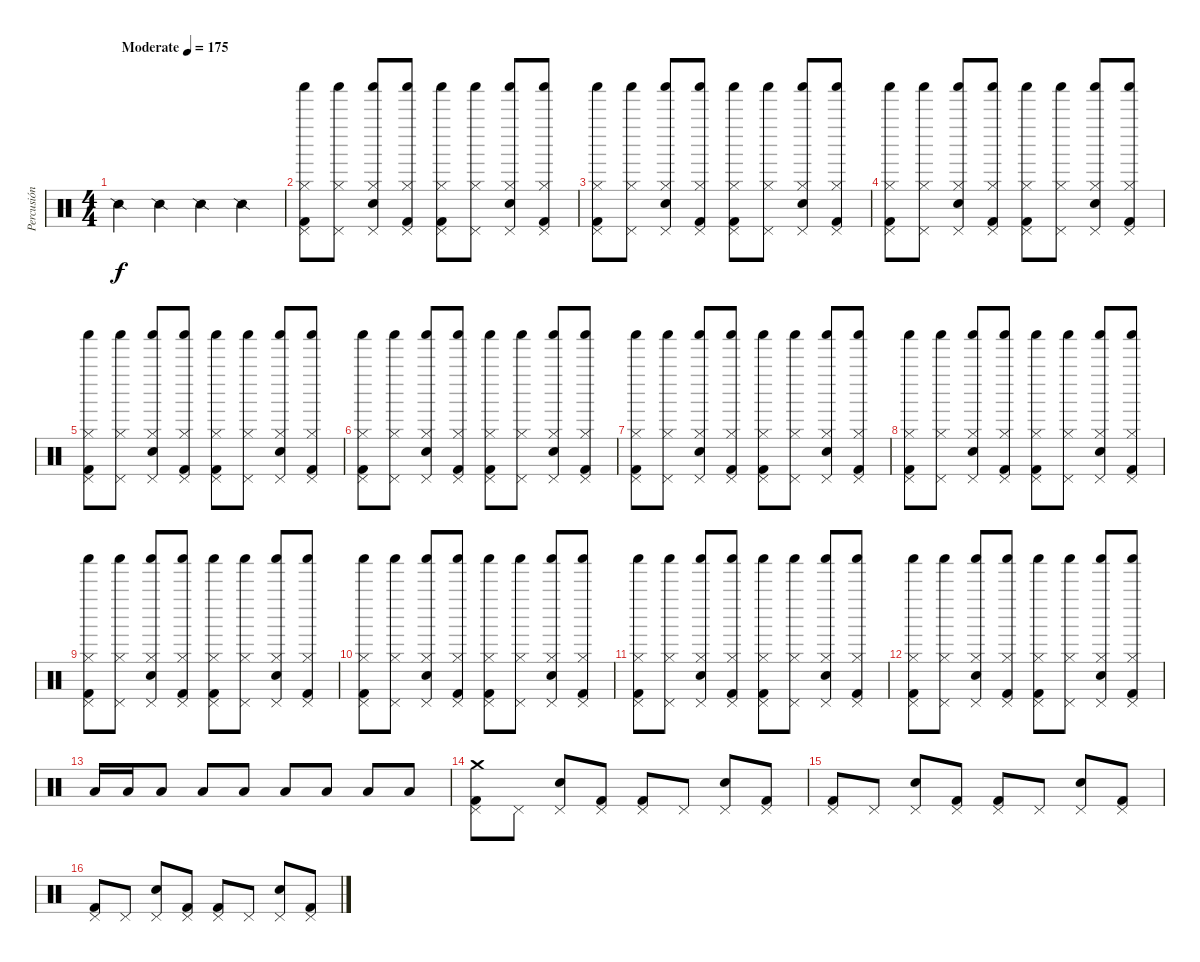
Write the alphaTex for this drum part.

\track ("Percusión" "Percusión") {instrument percussion}
\staff {score}
\articulation defaults
\ts (4 4)
\tempo (175 "Moderate")
\clef neutral
\ks c "Snare (side stick) 2".4{dy f} "Snare (side stick) 2".4 "Snare (side stick) 2".4 "Snare (side stick) 2".4
|
("Pedal Hi-Hat (hit)" "Shaker (hit)" "Hi-Hat (closed)" "Kick (hit) 2").8 ("Pedal Hi-Hat (hit)" "Shaker (hit)" "Hi-Hat (closed)").8 ("Pedal Hi-Hat (hit)" "Shaker (hit)" "Hi-Hat (closed)" "Electric Snare (hit)").8 ("Pedal Hi-Hat (hit)" "Shaker (hit)" "Hi-Hat (closed)" "Kick (hit) 2").8 ("Pedal Hi-Hat (hit)" "Shaker (hit)" "Hi-Hat (closed)" "Kick (hit) 2").8 ("Pedal Hi-Hat (hit)" "Shaker (hit)" "Hi-Hat (closed)").8 ("Pedal Hi-Hat (hit)" "Shaker (hit)" "Hi-Hat (closed)" "Electric Snare (hit)").8 ("Pedal Hi-Hat (hit)" "Shaker (hit)" "Hi-Hat (closed)" "Kick (hit) 2").8 |
("Pedal Hi-Hat (hit)" "Shaker (hit)" "Hi-Hat (closed)" "Kick (hit) 2").8 ("Pedal Hi-Hat (hit)" "Shaker (hit)" "Hi-Hat (closed)").8 ("Pedal Hi-Hat (hit)" "Shaker (hit)" "Hi-Hat (closed)" "Electric Snare (hit)").8 ("Pedal Hi-Hat (hit)" "Shaker (hit)" "Hi-Hat (closed)" "Kick (hit) 2").8 ("Pedal Hi-Hat (hit)" "Shaker (hit)" "Hi-Hat (closed)" "Kick (hit) 2").8 ("Pedal Hi-Hat (hit)" "Shaker (hit)" "Hi-Hat (closed)").8 ("Pedal Hi-Hat (hit)" "Shaker (hit)" "Hi-Hat (closed)" "Electric Snare (hit)").8 ("Pedal Hi-Hat (hit)" "Shaker (hit)" "Hi-Hat (closed)" "Kick (hit) 2").8 |
("Pedal Hi-Hat (hit)" "Shaker (hit)" "Hi-Hat (closed)" "Kick (hit) 2").8 ("Pedal Hi-Hat (hit)" "Shaker (hit)" "Hi-Hat (closed)").8 ("Pedal Hi-Hat (hit)" "Shaker (hit)" "Hi-Hat (closed)" "Electric Snare (hit)").8 ("Pedal Hi-Hat (hit)" "Shaker (hit)" "Hi-Hat (closed)" "Kick (hit) 2").8 ("Pedal Hi-Hat (hit)" "Shaker (hit)" "Hi-Hat (closed)" "Kick (hit) 2").8 ("Pedal Hi-Hat (hit)" "Shaker (hit)" "Hi-Hat (closed)").8 ("Pedal Hi-Hat (hit)" "Shaker (hit)" "Hi-Hat (closed)" "Electric Snare (hit)").8 ("Pedal Hi-Hat (hit)" "Shaker (hit)" "Hi-Hat (closed)" "Kick (hit) 2").8 |
("Pedal Hi-Hat (hit)" "Shaker (hit)" "Hi-Hat (closed)" "Kick (hit) 2").8 ("Pedal Hi-Hat (hit)" "Shaker (hit)" "Hi-Hat (closed)").8 ("Pedal Hi-Hat (hit)" "Shaker (hit)" "Hi-Hat (closed)" "Electric Snare (hit)").8 ("Pedal Hi-Hat (hit)" "Shaker (hit)" "Hi-Hat (closed)" "Kick (hit) 2").8 ("Pedal Hi-Hat (hit)" "Shaker (hit)" "Hi-Hat (closed)" "Kick (hit) 2").8 ("Pedal Hi-Hat (hit)" "Shaker (hit)" "Hi-Hat (closed)").8 ("Pedal Hi-Hat (hit)" "Shaker (hit)" "Hi-Hat (closed)" "Electric Snare (hit)").8 ("Pedal Hi-Hat (hit)" "Shaker (hit)" "Hi-Hat (closed)" "Kick (hit) 2").8 |
("Pedal Hi-Hat (hit)" "Shaker (hit)" "Hi-Hat (closed)" "Kick (hit) 2").8 ("Pedal Hi-Hat (hit)" "Shaker (hit)" "Hi-Hat (closed)").8 ("Pedal Hi-Hat (hit)" "Shaker (hit)" "Hi-Hat (closed)" "Electric Snare (hit)").8 ("Pedal Hi-Hat (hit)" "Shaker (hit)" "Hi-Hat (closed)" "Kick (hit) 2").8 ("Pedal Hi-Hat (hit)" "Shaker (hit)" "Hi-Hat (closed)" "Kick (hit) 2").8 ("Pedal Hi-Hat (hit)" "Shaker (hit)" "Hi-Hat (closed)").8 ("Pedal Hi-Hat (hit)" "Shaker (hit)" "Hi-Hat (closed)" "Electric Snare (hit)").8 ("Pedal Hi-Hat (hit)" "Shaker (hit)" "Hi-Hat (closed)" "Kick (hit) 2").8 |
("Pedal Hi-Hat (hit)" "Shaker (hit)" "Hi-Hat (closed)" "Kick (hit) 2").8 ("Pedal Hi-Hat (hit)" "Shaker (hit)" "Hi-Hat (closed)").8 ("Pedal Hi-Hat (hit)" "Shaker (hit)" "Hi-Hat (closed)" "Electric Snare (hit)").8 ("Pedal Hi-Hat (hit)" "Shaker (hit)" "Hi-Hat (closed)" "Kick (hit) 2").8 ("Pedal Hi-Hat (hit)" "Shaker (hit)" "Hi-Hat (closed)" "Kick (hit) 2").8 ("Pedal Hi-Hat (hit)" "Shaker (hit)" "Hi-Hat (closed)").8 ("Pedal Hi-Hat (hit)" "Shaker (hit)" "Hi-Hat (closed)" "Electric Snare (hit)").8 ("Pedal Hi-Hat (hit)" "Shaker (hit)" "Hi-Hat (closed)" "Kick (hit) 2").8 |
("Pedal Hi-Hat (hit)" "Shaker (hit)" "Hi-Hat (closed)" "Kick (hit) 2").8 ("Pedal Hi-Hat (hit)" "Shaker (hit)" "Hi-Hat (closed)").8 ("Pedal Hi-Hat (hit)" "Shaker (hit)" "Hi-Hat (closed)" "Electric Snare (hit)").8 ("Pedal Hi-Hat (hit)" "Shaker (hit)" "Hi-Hat (closed)" "Kick (hit) 2").8 ("Pedal Hi-Hat (hit)" "Shaker (hit)" "Hi-Hat (closed)" "Kick (hit) 2").8 ("Pedal Hi-Hat (hit)" "Shaker (hit)" "Hi-Hat (closed)").8 ("Pedal Hi-Hat (hit)" "Shaker (hit)" "Hi-Hat (closed)" "Electric Snare (hit)").8 ("Pedal Hi-Hat (hit)" "Shaker (hit)" "Hi-Hat (closed)" "Kick (hit) 2").8 |
("Pedal Hi-Hat (hit)" "Shaker (hit)" "Hi-Hat (closed)" "Kick (hit) 2").8 ("Pedal Hi-Hat (hit)" "Shaker (hit)" "Hi-Hat (closed)").8 ("Pedal Hi-Hat (hit)" "Shaker (hit)" "Hi-Hat (closed)" "Electric Snare (hit)").8 ("Pedal Hi-Hat (hit)" "Shaker (hit)" "Hi-Hat (closed)" "Kick (hit) 2").8 ("Pedal Hi-Hat (hit)" "Shaker (hit)" "Hi-Hat (closed)" "Kick (hit) 2").8 ("Pedal Hi-Hat (hit)" "Shaker (hit)" "Hi-Hat (closed)").8 ("Pedal Hi-Hat (hit)" "Shaker (hit)" "Hi-Hat (closed)" "Electric Snare (hit)").8 ("Pedal Hi-Hat (hit)" "Shaker (hit)" "Hi-Hat (closed)" "Kick (hit) 2").8 |
("Pedal Hi-Hat (hit)" "Shaker (hit)" "Hi-Hat (closed)" "Kick (hit) 2").8 ("Pedal Hi-Hat (hit)" "Shaker (hit)" "Hi-Hat (closed)").8 ("Pedal Hi-Hat (hit)" "Shaker (hit)" "Hi-Hat (closed)" "Electric Snare (hit)").8 ("Pedal Hi-Hat (hit)" "Shaker (hit)" "Hi-Hat (closed)" "Kick (hit) 2").8 ("Pedal Hi-Hat (hit)" "Shaker (hit)" "Hi-Hat (closed)" "Kick (hit) 2").8 ("Pedal Hi-Hat (hit)" "Shaker (hit)" "Hi-Hat (closed)").8 ("Pedal Hi-Hat (hit)" "Shaker (hit)" "Hi-Hat (closed)" "Electric Snare (hit)").8 ("Pedal Hi-Hat (hit)" "Shaker (hit)" "Hi-Hat (closed)" "Kick (hit) 2").8 |
("Pedal Hi-Hat (hit)" "Shaker (hit)" "Hi-Hat (closed)" "Kick (hit) 2").8 ("Pedal Hi-Hat (hit)" "Shaker (hit)" "Hi-Hat (closed)").8 ("Pedal Hi-Hat (hit)" "Shaker (hit)" "Hi-Hat (closed)" "Electric Snare (hit)").8 ("Pedal Hi-Hat (hit)" "Shaker (hit)" "Hi-Hat (closed)" "Kick (hit) 2").8 ("Pedal Hi-Hat (hit)" "Shaker (hit)" "Hi-Hat (closed)" "Kick (hit) 2").8 ("Pedal Hi-Hat (hit)" "Shaker (hit)" "Hi-Hat (closed)").8 ("Pedal Hi-Hat (hit)" "Shaker (hit)" "Hi-Hat (closed)" "Electric Snare (hit)").8 ("Pedal Hi-Hat (hit)" "Shaker (hit)" "Hi-Hat (closed)" "Kick (hit) 2").8 |
("Pedal Hi-Hat (hit)" "Shaker (hit)" "Hi-Hat (closed)" "Kick (hit) 2").8 ("Pedal Hi-Hat (hit)" "Shaker (hit)" "Hi-Hat (closed)").8 ("Pedal Hi-Hat (hit)" "Shaker (hit)" "Hi-Hat (closed)" "Electric Snare (hit)").8 ("Pedal Hi-Hat (hit)" "Shaker (hit)" "Hi-Hat (closed)" "Kick (hit) 2").8 ("Pedal Hi-Hat (hit)" "Shaker (hit)" "Hi-Hat (closed)" "Kick (hit) 2").8 ("Pedal Hi-Hat (hit)" "Shaker (hit)" "Hi-Hat (closed)").8 ("Pedal Hi-Hat (hit)" "Shaker (hit)" "Hi-Hat (closed)" "Electric Snare (hit)").8 ("Pedal Hi-Hat (hit)" "Shaker (hit)" "Hi-Hat (closed)" "Kick (hit) 2").8 |
"Low Tom (hit)".16 "Low Tom (hit)".16 "Low Tom (hit)".8 "Low Tom (hit)".8 "Low Tom (hit)".8 "Low Tom (hit)".8 "Low Tom (hit)".8 "Low Tom (hit)".8 "Low Tom (hit)".8 |
("Pedal Hi-Hat (hit)" "Crash medium (hit)" "Kick (hit) 2").8 "Pedal Hi-Hat (hit)".8 ("Pedal Hi-Hat (hit)" "Electric Snare (hit)").8 ("Pedal Hi-Hat (hit)" "Kick (hit) 2").8 ("Pedal Hi-Hat (hit)" "Kick (hit) 2").8 "Pedal Hi-Hat (hit)".8 ("Pedal Hi-Hat (hit)" "Electric Snare (hit)").8 ("Pedal Hi-Hat (hit)" "Kick (hit) 2").8 |
("Pedal Hi-Hat (hit)" "Kick (hit) 2").8 "Pedal Hi-Hat (hit)".8 ("Pedal Hi-Hat (hit)" "Electric Snare (hit)").8 ("Pedal Hi-Hat (hit)" "Kick (hit) 2").8 ("Pedal Hi-Hat (hit)" "Kick (hit) 2").8 "Pedal Hi-Hat (hit)".8 ("Pedal Hi-Hat (hit)" "Electric Snare (hit)").8 ("Pedal Hi-Hat (hit)" "Kick (hit) 2").8 |
("Pedal Hi-Hat (hit)" "Kick (hit) 2").8 "Pedal Hi-Hat (hit)".8 ("Pedal Hi-Hat (hit)" "Electric Snare (hit)").8 ("Pedal Hi-Hat (hit)" "Kick (hit) 2").8 ("Pedal Hi-Hat (hit)" "Kick (hit) 2").8 "Pedal Hi-Hat (hit)".8 ("Pedal Hi-Hat (hit)" "Electric Snare (hit)").8 ("Pedal Hi-Hat (hit)" "Kick (hit) 2").8
